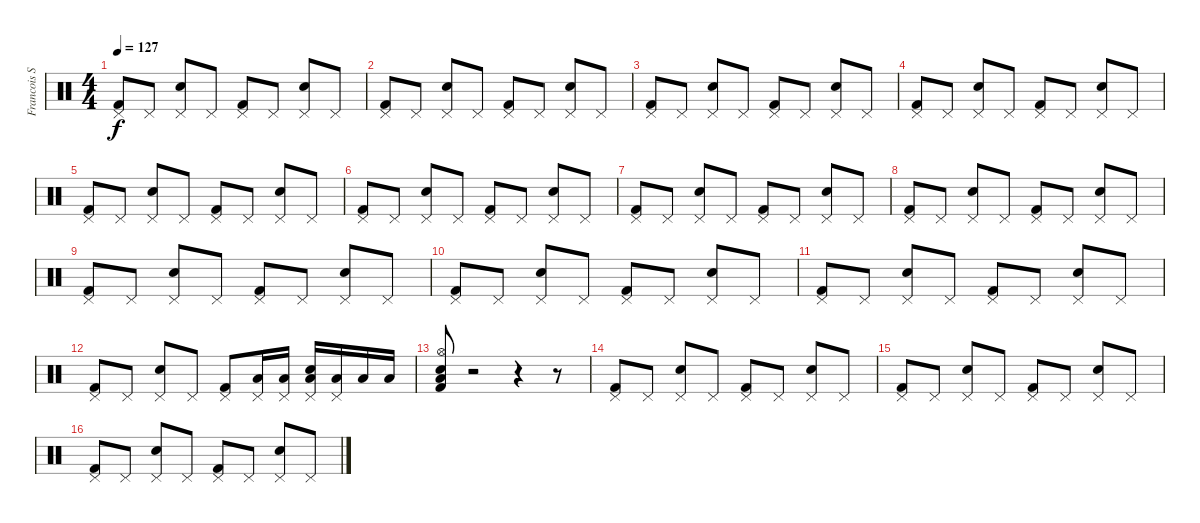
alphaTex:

\track ("Francois Soulier" "Francois S") {instrument percussion}
\staff {score}
\articulation defaults
\ts (4 4)
\tempo 127
\clef neutral
\ks c
("Kick (hit) 2" "Pedal Hi-Hat (hit)").8{dy f} "Pedal Hi-Hat (hit)".8 ("Snare (hit) 2" "Pedal Hi-Hat (hit)").8 "Pedal Hi-Hat (hit)".8 ("Kick (hit) 2" "Pedal Hi-Hat (hit)").8 "Pedal Hi-Hat (hit)".8 ("Snare (hit) 2" "Pedal Hi-Hat (hit)").8 "Pedal Hi-Hat (hit)".8 |
("Kick (hit) 2" "Pedal Hi-Hat (hit)").8 "Pedal Hi-Hat (hit)".8 ("Snare (hit) 2" "Pedal Hi-Hat (hit)").8 "Pedal Hi-Hat (hit)".8 ("Kick (hit) 2" "Pedal Hi-Hat (hit)").8 "Pedal Hi-Hat (hit)".8 ("Snare (hit) 2" "Pedal Hi-Hat (hit)").8 "Pedal Hi-Hat (hit)".8 |
("Kick (hit) 2" "Pedal Hi-Hat (hit)").8 "Pedal Hi-Hat (hit)".8 ("Snare (hit) 2" "Pedal Hi-Hat (hit)").8 "Pedal Hi-Hat (hit)".8 ("Kick (hit) 2" "Pedal Hi-Hat (hit)").8 "Pedal Hi-Hat (hit)".8 ("Snare (hit) 2" "Pedal Hi-Hat (hit)").8 "Pedal Hi-Hat (hit)".8 |
("Kick (hit) 2" "Pedal Hi-Hat (hit)").8 "Pedal Hi-Hat (hit)".8 ("Snare (hit) 2" "Pedal Hi-Hat (hit)").8 "Pedal Hi-Hat (hit)".8 ("Kick (hit) 2" "Pedal Hi-Hat (hit)").8 "Pedal Hi-Hat (hit)".8 ("Snare (hit) 2" "Pedal Hi-Hat (hit)").8 "Pedal Hi-Hat (hit)".8 |
("Kick (hit) 2" "Pedal Hi-Hat (hit)").8 "Pedal Hi-Hat (hit)".8 ("Snare (hit) 2" "Pedal Hi-Hat (hit)").8 "Pedal Hi-Hat (hit)".8 ("Kick (hit) 2" "Pedal Hi-Hat (hit)").8 "Pedal Hi-Hat (hit)".8 ("Snare (hit) 2" "Pedal Hi-Hat (hit)").8 "Pedal Hi-Hat (hit)".8 |
("Kick (hit) 2" "Pedal Hi-Hat (hit)").8 "Pedal Hi-Hat (hit)".8 ("Snare (hit) 2" "Pedal Hi-Hat (hit)").8 "Pedal Hi-Hat (hit)".8 ("Kick (hit) 2" "Pedal Hi-Hat (hit)").8 "Pedal Hi-Hat (hit)".8 ("Snare (hit) 2" "Pedal Hi-Hat (hit)").8 "Pedal Hi-Hat (hit)".8 |
("Kick (hit) 2" "Pedal Hi-Hat (hit)").8 "Pedal Hi-Hat (hit)".8 ("Snare (hit) 2" "Pedal Hi-Hat (hit)").8 "Pedal Hi-Hat (hit)".8 ("Kick (hit) 2" "Pedal Hi-Hat (hit)").8 "Pedal Hi-Hat (hit)".8 ("Snare (hit) 2" "Pedal Hi-Hat (hit)").8 "Pedal Hi-Hat (hit)".8 |
("Kick (hit) 2" "Pedal Hi-Hat (hit)").8 "Pedal Hi-Hat (hit)".8 ("Snare (hit) 2" "Pedal Hi-Hat (hit)").8 "Pedal Hi-Hat (hit)".8 ("Kick (hit) 2" "Pedal Hi-Hat (hit)").8 "Pedal Hi-Hat (hit)".8 ("Snare (hit) 2" "Pedal Hi-Hat (hit)").8 "Pedal Hi-Hat (hit)".8 |
("Kick (hit) 2" "Pedal Hi-Hat (hit)").8 "Pedal Hi-Hat (hit)".8 ("Snare (hit) 2" "Pedal Hi-Hat (hit)").8 "Pedal Hi-Hat (hit)".8 ("Kick (hit) 2" "Pedal Hi-Hat (hit)").8 "Pedal Hi-Hat (hit)".8 ("Snare (hit) 2" "Pedal Hi-Hat (hit)").8 "Pedal Hi-Hat (hit)".8 |
("Kick (hit) 2" "Pedal Hi-Hat (hit)").8 "Pedal Hi-Hat (hit)".8 ("Snare (hit) 2" "Pedal Hi-Hat (hit)").8 "Pedal Hi-Hat (hit)".8 ("Kick (hit) 2" "Pedal Hi-Hat (hit)").8 "Pedal Hi-Hat (hit)".8 ("Snare (hit) 2" "Pedal Hi-Hat (hit)").8 "Pedal Hi-Hat (hit)".8 |
("Kick (hit) 2" "Pedal Hi-Hat (hit)").8 "Pedal Hi-Hat (hit)".8 ("Snare (hit) 2" "Pedal Hi-Hat (hit)").8 "Pedal Hi-Hat (hit)".8 ("Kick (hit) 2" "Pedal Hi-Hat (hit)").8 "Pedal Hi-Hat (hit)".8 ("Snare (hit) 2" "Pedal Hi-Hat (hit)").8 "Pedal Hi-Hat (hit)".8 |
("Kick (hit) 2" "Pedal Hi-Hat (hit)").8 "Pedal Hi-Hat (hit)".8 ("Snare (hit) 2" "Pedal Hi-Hat (hit)").8 "Pedal Hi-Hat (hit)".8 ("Kick (hit) 2" "Pedal Hi-Hat (hit)").8 ("Low Floor Tom (hit)" "Pedal Hi-Hat (hit)").16 ("Low Floor Tom (hit)" "Pedal Hi-Hat (hit)").16 ("Low Floor Tom (hit)" "Snare (hit) 2" "Pedal Hi-Hat (hit)").16 ("Low Floor Tom (hit)" "Pedal Hi-Hat (hit)").16 "Low Floor Tom (hit)".16 "Low Floor Tom (hit)".16 |
("Low Floor Tom (hit)" "Kick (hit) 2" "Hi-Hat (open)" "Electric Snare (hit)").8 r.2 r.4 r.8 |
("Kick (hit) 2" "Pedal Hi-Hat (hit)").8 "Pedal Hi-Hat (hit)".8 ("Snare (hit) 2" "Pedal Hi-Hat (hit)").8 "Pedal Hi-Hat (hit)".8 ("Kick (hit) 2" "Pedal Hi-Hat (hit)").8 "Pedal Hi-Hat (hit)".8 ("Snare (hit) 2" "Pedal Hi-Hat (hit)").8 "Pedal Hi-Hat (hit)".8 |
("Kick (hit) 2" "Pedal Hi-Hat (hit)").8 "Pedal Hi-Hat (hit)".8 ("Snare (hit) 2" "Pedal Hi-Hat (hit)").8 "Pedal Hi-Hat (hit)".8 ("Kick (hit) 2" "Pedal Hi-Hat (hit)").8 "Pedal Hi-Hat (hit)".8 ("Snare (hit) 2" "Pedal Hi-Hat (hit)").8 "Pedal Hi-Hat (hit)".8 |
("Kick (hit) 2" "Pedal Hi-Hat (hit)").8 "Pedal Hi-Hat (hit)".8 ("Snare (hit) 2" "Pedal Hi-Hat (hit)").8 "Pedal Hi-Hat (hit)".8 ("Kick (hit) 2" "Pedal Hi-Hat (hit)").8 "Pedal Hi-Hat (hit)".8 ("Snare (hit) 2" "Pedal Hi-Hat (hit)").8 "Pedal Hi-Hat (hit)".8
